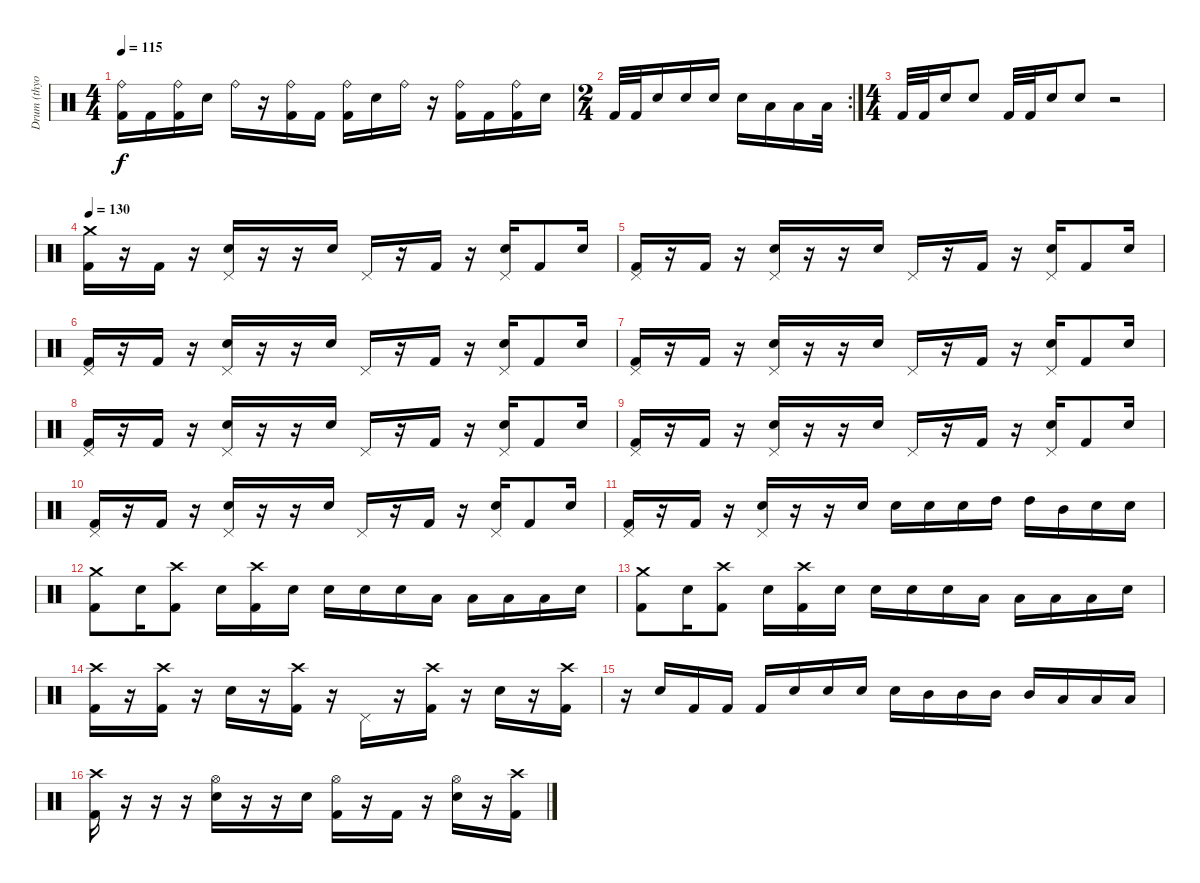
\track ("Drum (thyo)" "Drum (thyo") {instrument percussion}
\staff {score}
\articulation defaults
\ts (4 4)
\tempo 115
\clef neutral
\ks c
("Ride (bell)" "Kick (hit) 2").16{dy f} "Kick (hit) 2".16 ("Ride (bell)" "Kick (hit) 2").16 "Electric Snare (hit)".16 "Ride (bell)".16 r.16 ("Ride (bell)" "Kick (hit) 2").16 "Kick (hit) 2".16 ("Ride (bell)" "Kick (hit) 2").16 "Electric Snare (hit)".16 "Ride (bell)".16 r.16 ("Ride (bell)" "Kick (hit) 2").16 "Kick (hit) 2".16 ("Ride (bell)" "Kick (hit) 2").16 "Electric Snare (hit)".16 |
\rc 2
\ts (2 4)
"Kick (hit) 2".32 "Kick (hit) 2".32 "Electric Snare (hit)".16 "Electric Snare (hit)".16 "Electric Snare (hit)".16 "Electric Snare (hit)".16 "Low Tom (hit)".16 "Low Tom (hit)".16 "Low Tom (hit)".32 |
\ts (4 4)
"Kick (hit) 2".32 "Kick (hit) 2".32 "Electric Snare (hit)".16 "Electric Snare (hit)".8 "Kick (hit) 2".32 "Kick (hit) 2".32 "Electric Snare (hit)".16 "Electric Snare (hit)".8 r.2 |
\tempo 130
("Crash medium (hit)" "Kick (hit) 2").16 r.16 "Kick (hit) 2".16 r.16 ("Electric Snare (hit)" "Pedal Hi-Hat (hit)").16 r.16 r.16 "Electric Snare (hit)".16 "Pedal Hi-Hat (hit)".16 r.16 "Kick (hit) 2".16 r.16 ("Electric Snare (hit)" "Pedal Hi-Hat (hit)").16 "Kick (hit) 2".8 "Electric Snare (hit)".16 |
("Pedal Hi-Hat (hit)" "Kick (hit) 2").16 r.16 "Kick (hit) 2".16 r.16 ("Electric Snare (hit)" "Pedal Hi-Hat (hit)").16 r.16 r.16 "Electric Snare (hit)".16 "Pedal Hi-Hat (hit)".16 r.16 "Kick (hit) 2".16 r.16 ("Electric Snare (hit)" "Pedal Hi-Hat (hit)").16 "Kick (hit) 2".8 "Electric Snare (hit)".16 |
("Pedal Hi-Hat (hit)" "Kick (hit) 2").16 r.16 "Kick (hit) 2".16 r.16 ("Electric Snare (hit)" "Pedal Hi-Hat (hit)").16 r.16 r.16 "Electric Snare (hit)".16 "Pedal Hi-Hat (hit)".16 r.16 "Kick (hit) 2".16 r.16 ("Electric Snare (hit)" "Pedal Hi-Hat (hit)").16 "Kick (hit) 2".8 "Electric Snare (hit)".16 |
("Pedal Hi-Hat (hit)" "Kick (hit) 2").16 r.16 "Kick (hit) 2".16 r.16 ("Electric Snare (hit)" "Pedal Hi-Hat (hit)").16 r.16 r.16 "Electric Snare (hit)".16 "Pedal Hi-Hat (hit)".16 r.16 "Kick (hit) 2".16 r.16 ("Electric Snare (hit)" "Pedal Hi-Hat (hit)").16 "Kick (hit) 2".8 "Electric Snare (hit)".16 |
("Pedal Hi-Hat (hit)" "Kick (hit) 2").16 r.16 "Kick (hit) 2".16 r.16 ("Electric Snare (hit)" "Pedal Hi-Hat (hit)").16 r.16 r.16 "Electric Snare (hit)".16 "Pedal Hi-Hat (hit)".16 r.16 "Kick (hit) 2".16 r.16 ("Electric Snare (hit)" "Pedal Hi-Hat (hit)").16 "Kick (hit) 2".8 "Electric Snare (hit)".16 |
("Pedal Hi-Hat (hit)" "Kick (hit) 2").16 r.16 "Kick (hit) 2".16 r.16 ("Electric Snare (hit)" "Pedal Hi-Hat (hit)").16 r.16 r.16 "Electric Snare (hit)".16 "Pedal Hi-Hat (hit)".16 r.16 "Kick (hit) 2".16 r.16 ("Electric Snare (hit)" "Pedal Hi-Hat (hit)").16 "Kick (hit) 2".8 "Electric Snare (hit)".16 |
("Pedal Hi-Hat (hit)" "Kick (hit) 2").16 r.16 "Kick (hit) 2".16 r.16 ("Electric Snare (hit)" "Pedal Hi-Hat (hit)").16 r.16 r.16 "Electric Snare (hit)".16 "Pedal Hi-Hat (hit)".16 r.16 "Kick (hit) 2".16 r.16 ("Electric Snare (hit)" "Pedal Hi-Hat (hit)").16 "Kick (hit) 2".8 "Electric Snare (hit)".16 |
("Pedal Hi-Hat (hit)" "Kick (hit) 2").16 r.16 "Kick (hit) 2".16 r.16 ("Electric Snare (hit)" "Pedal Hi-Hat (hit)").16 r.16 r.16 "Electric Snare (hit)".16 "Electric Snare (hit)".16 "Electric Snare (hit)".16 "Electric Snare (hit)".16 "High Tom (hit)".16 "High Tom (hit)".16 "Mid Tom (hit)".16 "Electric Snare (hit)".16 "Electric Snare (hit)".16 |
("Crash medium (hit)" "Kick (hit) 2").8 "Electric Snare (hit)".16 ("Crash high (hit)" "Kick (hit) 2").8 "Electric Snare (hit)".16 ("Crash high (hit)" "Kick (hit) 2").16 "Electric Snare (hit)".16 "Electric Snare (hit)".16 "Electric Snare (hit)".16 "Electric Snare (hit)".16 "Low Tom (hit)".16 "Low Tom (hit)".16 "Low Tom (hit)".16 "Low Tom (hit)".16 "Electric Snare (hit)".16 |
("Crash medium (hit)" "Kick (hit) 2").8 "Electric Snare (hit)".16 ("Crash high (hit)" "Kick (hit) 2").8 "Electric Snare (hit)".16 ("Crash high (hit)" "Kick (hit) 2").16 "Electric Snare (hit)".16 "Electric Snare (hit)".16 "Electric Snare (hit)".16 "Electric Snare (hit)".16 "Low Tom (hit)".16 "Low Tom (hit)".16 "Low Tom (hit)".16 "Low Tom (hit)".16 "Electric Snare (hit)".16 |
("Crash high (hit)" "Kick (hit) 2").16 r.16 ("Crash high (hit)" "Kick (hit) 2").16 r.16 "Electric Snare (hit)".16 r.16 ("Crash high (hit)" "Kick (hit) 2").16 r.16 "Pedal Hi-Hat (hit)".16 r.16 ("Crash high (hit)" "Kick (hit) 2").16 r.16 "Electric Snare (hit)".16 r.16 ("Crash high (hit)" "Kick (hit) 2").16 |
r.16 "Electric Snare (hit)".16 "Kick (hit) 2".16 "Kick (hit) 2".16 "Kick (hit) 2".16 "Electric Snare (hit)".16 "Electric Snare (hit)".16 "Electric Snare (hit)".16 "Electric Snare (hit)".16 "Mid Tom (hit)".16 "Mid Tom (hit)".16 "Mid Tom (hit)".16 "Mid Tom (hit)".16 "Low Tom (hit)".16 "Low Tom (hit)".16 "Low Tom (hit)".16 |
("Crash high (hit)" "Kick (hit) 2").16 r.16 r.16 r.16 ("Hi-Hat (open)" "Electric Snare (hit)").16 r.16 r.16 "Electric Snare (hit)".16 ("Hi-Hat (open)" "Kick (hit) 2").16 r.16 "Kick (hit) 2".16 r.16 ("Hi-Hat (open)" "Electric Snare (hit)").16 r.16 ("Crash high (hit)" "Kick (hit) 2").16
